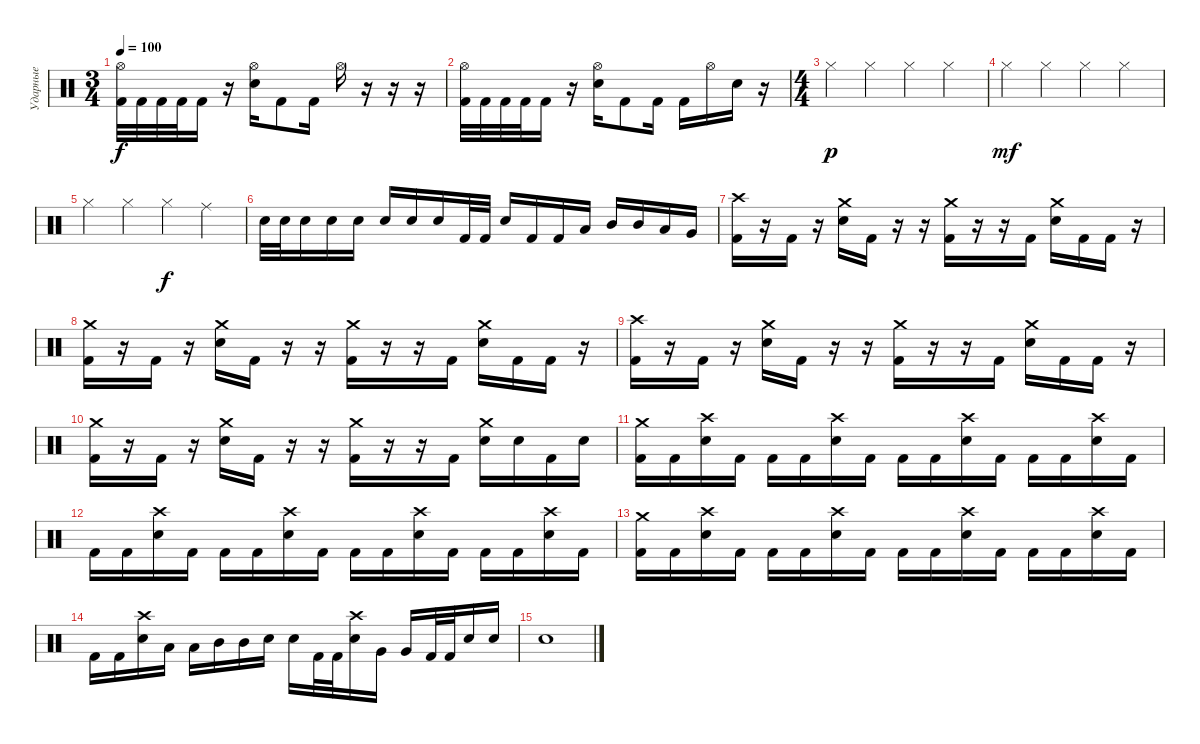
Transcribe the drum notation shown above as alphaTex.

\track ("Ударные" "Ударные") {instrument percussion}
\staff {score}
\articulation defaults
\ts (3 4)
\tempo 100
\clef neutral
\ks c
("Hi-Hat (open)" "Kick (hit) 2").32{dy f} "Kick (hit) 2".32 "Kick (hit) 2".32 "Kick (hit) 2".32 "Kick (hit) 2".16 r.16 ("Hi-Hat (open)" "Electric Snare (hit)").16 "Kick (hit) 2".8 "Kick (hit) 2".16 "Hi-Hat (open)".16 r.16 r.16 r.16 |
("Hi-Hat (open)" "Kick (hit) 2").32 "Kick (hit) 2".32 "Kick (hit) 2".32 "Kick (hit) 2".32 "Kick (hit) 2".16 r.16 ("Hi-Hat (open)" "Electric Snare (hit)").16 "Kick (hit) 2".8 "Kick (hit) 2".16 "Kick (hit) 2".16 "Hi-Hat (open)".16 "Electric Snare (hit)".16 r.16 |
\ts (4 4)
"Hi-Hat (closed)".4{dy p} "Hi-Hat (closed)".4 "Hi-Hat (closed)".4 "Hi-Hat (closed)".4 |
"Hi-Hat (closed)".4{dy mf} "Hi-Hat (closed)".4 "Hi-Hat (closed)".4 "Hi-Hat (closed)".4 |
"Hi-Hat (closed)".4 "Hi-Hat (closed)".4 "Hi-Hat (closed)".4{dy f} "Ride (middle)".4 |
"Electric Snare (hit)".32 "Electric Snare (hit)".32 "Electric Snare (hit)".16 "Electric Snare (hit)".16 "Electric Snare (hit)".16 "Electric Snare (hit)".16 "Electric Snare (hit)".16 "Electric Snare (hit)".16 "Kick (hit) 2".32 "Kick (hit) 2".32 "Electric Snare (hit)".16 "Kick (hit) 2".16 "Kick (hit) 2".16 "Low Tom (hit)".16 "Mid Tom (hit)".16 "Mid Tom (hit)".16 "Low Tom (hit)".16 "Very Low Tom (hit)".16 |
("Crash high (hit)" "Kick (hit) 2").16 r.16 "Kick (hit) 2".16 r.16 ("Crash medium (hit)" "Electric Snare (hit)").16 "Kick (hit) 2".16 r.16 r.16 ("Crash medium (hit)" "Kick (hit) 2").16 r.16 r.16 "Kick (hit) 2".16 ("Crash medium (hit)" "Electric Snare (hit)").16 "Kick (hit) 2".16 "Kick (hit) 2".16 r.16 |
("Crash medium (hit)" "Kick (hit) 2").16 r.16 "Kick (hit) 2".16 r.16 ("Crash medium (hit)" "Electric Snare (hit)").16 "Kick (hit) 2".16 r.16 r.16 ("Crash medium (hit)" "Kick (hit) 2").16 r.16 r.16 "Kick (hit) 2".16 ("Crash medium (hit)" "Electric Snare (hit)").16 "Kick (hit) 2".16 "Kick (hit) 2".16 r.16 |
("Crash high (hit)" "Kick (hit) 2").16 r.16 "Kick (hit) 2".16 r.16 ("Crash medium (hit)" "Electric Snare (hit)").16 "Kick (hit) 2".16 r.16 r.16 ("Crash medium (hit)" "Kick (hit) 2").16 r.16 r.16 "Kick (hit) 2".16 ("Crash medium (hit)" "Electric Snare (hit)").16 "Kick (hit) 2".16 "Kick (hit) 2".16 r.16 |
("Crash medium (hit)" "Kick (hit) 2").16 r.16 "Kick (hit) 2".16 r.16 ("Crash medium (hit)" "Electric Snare (hit)").16 "Kick (hit) 2".16 r.16 r.16 ("Crash medium (hit)" "Kick (hit) 2").16 r.16 r.16 "Kick (hit) 2".16 ("Crash medium (hit)" "Electric Snare (hit)").16 "Electric Snare (hit)".16 "Kick (hit) 2".16 "Electric Snare (hit)".16 |
("Crash medium (hit)" "Kick (hit) 2").16 "Kick (hit) 2".16 ("Crash high (hit)" "Electric Snare (hit)").16 "Kick (hit) 2".16 "Kick (hit) 2".16 "Kick (hit) 2".16 ("Crash high (hit)" "Electric Snare (hit)").16 "Kick (hit) 2".16 "Kick (hit) 2".16 "Kick (hit) 2".16 ("Crash high (hit)" "Electric Snare (hit)").16 "Kick (hit) 2".16 "Kick (hit) 2".16 "Kick (hit) 2".16 ("Crash high (hit)" "Electric Snare (hit)").16 "Kick (hit) 2".16 |
"Kick (hit) 2".16 "Kick (hit) 2".16 ("Crash high (hit)" "Electric Snare (hit)").16 "Kick (hit) 2".16 "Kick (hit) 2".16 "Kick (hit) 2".16 ("Crash high (hit)" "Electric Snare (hit)").16 "Kick (hit) 2".16 "Kick (hit) 2".16 "Kick (hit) 2".16 ("Crash high (hit)" "Electric Snare (hit)").16 "Kick (hit) 2".16 "Kick (hit) 2".16 "Kick (hit) 2".16 ("Crash high (hit)" "Electric Snare (hit)").16 "Kick (hit) 2".16 |
("Crash medium (hit)" "Kick (hit) 2").16 "Kick (hit) 2".16 ("Crash high (hit)" "Electric Snare (hit)").16 "Kick (hit) 2".16 "Kick (hit) 2".16 "Kick (hit) 2".16 ("Crash high (hit)" "Electric Snare (hit)").16 "Kick (hit) 2".16 "Kick (hit) 2".16 "Kick (hit) 2".16 ("Crash high (hit)" "Electric Snare (hit)").16 "Kick (hit) 2".16 "Kick (hit) 2".16 "Kick (hit) 2".16 ("Crash high (hit)" "Electric Snare (hit)").16 "Kick (hit) 2".16 |
"Kick (hit) 2".16 "Kick (hit) 2".16 ("Crash high (hit)" "Electric Snare (hit)").16 "Low Tom (hit)".16 "Low Tom (hit)".16 "Mid Tom (hit)".16 "Mid Tom (hit)".16 "Electric Snare (hit)".16 "Electric Snare (hit)".16 "Kick (hit) 2".32 "Kick (hit) 2".32 ("Crash high (hit)" "Electric Snare (hit)").16 "Very Low Tom (hit)".16 "Very Low Tom (hit)".16 "Kick (hit) 2".32 "Kick (hit) 2".32 "Electric Snare (hit)".16 "Electric Snare (hit)".16 |
"Electric Snare (hit)".1
